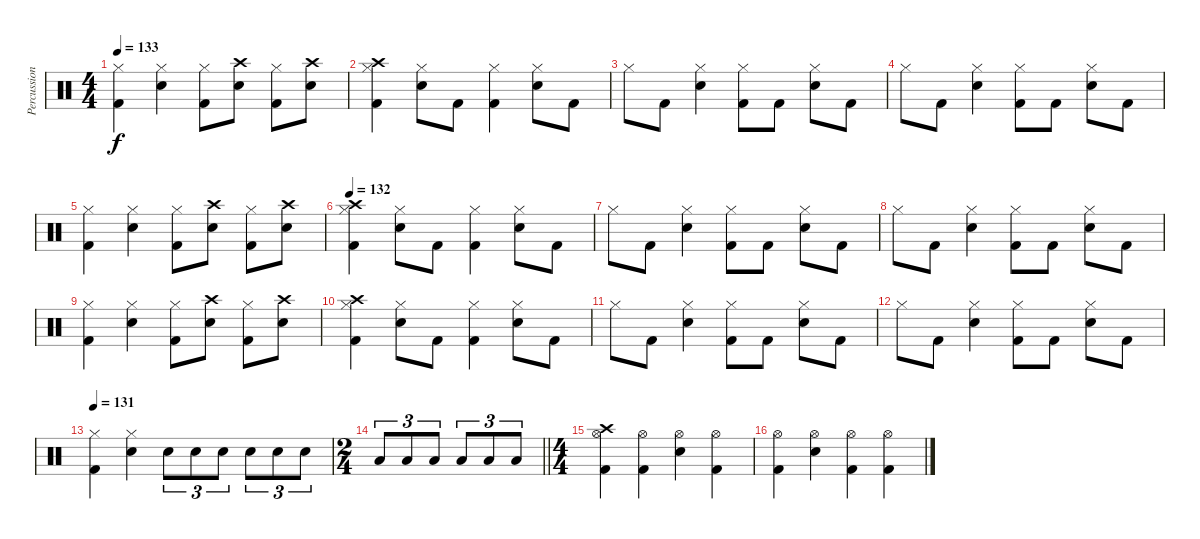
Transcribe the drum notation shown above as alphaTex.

\track ("Percussion" "Percussion") {instrument percussion}
\staff {score}
\articulation defaults
\ts (4 4)
\tempo 133
\clef neutral
\ks c
("Hi-Hat (closed)" "Kick (hit) 2").4{dy f} ("Hi-Hat (closed)" "Electric Snare (hit)").4 ("Hi-Hat (closed)" "Kick (hit) 2").8 ("Crash high (hit)" "Electric Snare (hit)").8 ("Hi-Hat (closed)" "Kick (hit) 2").8 ("Crash high (hit)" "Electric Snare (hit)").8 |
("Hi-Hat (closed)" "Crash high (hit)" "Kick (hit) 2").4 ("Hi-Hat (closed)" "Electric Snare (hit)").8 "Kick (hit) 2".8 ("Hi-Hat (closed)" "Kick (hit) 2").4 ("Hi-Hat (closed)" "Electric Snare (hit)").8 "Kick (hit) 2".8 |
"Hi-Hat (closed)".8 "Kick (hit) 2".8 ("Hi-Hat (closed)" "Electric Snare (hit)").4 ("Hi-Hat (closed)" "Kick (hit) 2").8 "Kick (hit) 2".8 ("Hi-Hat (closed)" "Electric Snare (hit)").8 "Kick (hit) 2".8 |
"Hi-Hat (closed)".8 "Kick (hit) 2".8 ("Hi-Hat (closed)" "Electric Snare (hit)").4 ("Hi-Hat (closed)" "Kick (hit) 2").8 "Kick (hit) 2".8 ("Hi-Hat (closed)" "Electric Snare (hit)").8 "Kick (hit) 2".8 |
("Hi-Hat (closed)" "Kick (hit) 2").4 ("Hi-Hat (closed)" "Electric Snare (hit)").4 ("Hi-Hat (closed)" "Kick (hit) 2").8 ("Crash high (hit)" "Electric Snare (hit)").8 ("Hi-Hat (closed)" "Kick (hit) 2").8 ("Crash high (hit)" "Electric Snare (hit)").8 |
\tempo 132
("Hi-Hat (closed)" "Crash high (hit)" "Kick (hit) 2").4 ("Hi-Hat (closed)" "Electric Snare (hit)").8 "Kick (hit) 2".8 ("Hi-Hat (closed)" "Kick (hit) 2").4 ("Hi-Hat (closed)" "Electric Snare (hit)").8 "Kick (hit) 2".8 |
"Hi-Hat (closed)".8 "Kick (hit) 2".8 ("Hi-Hat (closed)" "Electric Snare (hit)").4 ("Hi-Hat (closed)" "Kick (hit) 2").8 "Kick (hit) 2".8 ("Hi-Hat (closed)" "Electric Snare (hit)").8 "Kick (hit) 2".8 |
"Hi-Hat (closed)".8 "Kick (hit) 2".8 ("Hi-Hat (closed)" "Electric Snare (hit)").4 ("Hi-Hat (closed)" "Kick (hit) 2").8 "Kick (hit) 2".8 ("Hi-Hat (closed)" "Electric Snare (hit)").8 "Kick (hit) 2".8 |
("Hi-Hat (closed)" "Kick (hit) 2").4 ("Hi-Hat (closed)" "Electric Snare (hit)").4 ("Hi-Hat (closed)" "Kick (hit) 2").8 ("Crash high (hit)" "Electric Snare (hit)").8 ("Hi-Hat (closed)" "Kick (hit) 2").8 ("Crash high (hit)" "Electric Snare (hit)").8 |
("Hi-Hat (closed)" "Crash high (hit)" "Kick (hit) 2").4 ("Hi-Hat (closed)" "Electric Snare (hit)").8 "Kick (hit) 2".8 ("Hi-Hat (closed)" "Kick (hit) 2").4 ("Hi-Hat (closed)" "Electric Snare (hit)").8 "Kick (hit) 2".8 |
"Hi-Hat (closed)".8 "Kick (hit) 2".8 ("Hi-Hat (closed)" "Electric Snare (hit)").4 ("Hi-Hat (closed)" "Kick (hit) 2").8 "Kick (hit) 2".8 ("Hi-Hat (closed)" "Electric Snare (hit)").8 "Kick (hit) 2".8 |
"Hi-Hat (closed)".8 "Kick (hit) 2".8 ("Hi-Hat (closed)" "Electric Snare (hit)").4 ("Hi-Hat (closed)" "Kick (hit) 2").8 "Kick (hit) 2".8 ("Hi-Hat (closed)" "Electric Snare (hit)").8 "Kick (hit) 2".8 |
\tempo 131
("Hi-Hat (closed)" "Kick (hit) 2").4 ("Hi-Hat (closed)" "Electric Snare (hit)").4 "Electric Snare (hit)".8{tu (3 2)} "Electric Snare (hit)".8{tu (3 2)} "Electric Snare (hit)".8{tu (3 2)} "Electric Snare (hit)".8{tu (3 2)} "Electric Snare (hit)".8{tu (3 2)} "Electric Snare (hit)".8{tu (3 2)} |
\ts (2 4)
\barLineRight lightlight "Low Tom (hit)".8{tu (3 2)} "Low Tom (hit)".8{tu (3 2)} "Low Tom (hit)".8{tu (3 2)} "Low Tom (hit)".8{tu (3 2)} "Low Tom (hit)".8{tu (3 2)} "Low Tom (hit)".8{tu (3 2)}
|
\ts (4 4)
("Hi-Hat (open)" "Crash high (hit)" "Kick (hit) 2").4 ("Hi-Hat (open)" "Kick (hit) 2").4 ("Hi-Hat (open)" "Electric Snare (hit)").4 ("Hi-Hat (open)" "Kick (hit) 2").4 |
("Hi-Hat (open)" "Kick (hit) 2").4 ("Hi-Hat (open)" "Electric Snare (hit)").4 ("Hi-Hat (open)" "Kick (hit) 2").4 ("Hi-Hat (open)" "Kick (hit) 2").4
